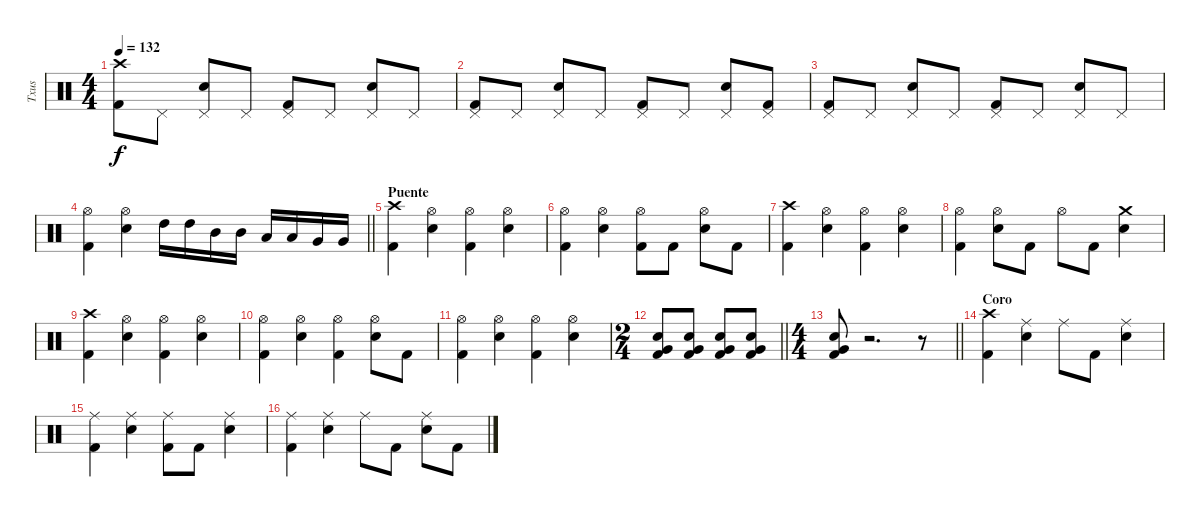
\track ("Txus" "Txus") {instrument percussion}
\staff {score}
\articulation defaults
\ts (4 4)
\tempo 132
\clef neutral
\ks c
("Crash high (hit)" "Kick (hit) 2").8{dy f} "Pedal Hi-Hat (hit)".8 ("Pedal Hi-Hat (hit)" "Electric Snare (hit)").8 "Pedal Hi-Hat (hit)".8 ("Pedal Hi-Hat (hit)" "Kick (hit) 2").8 "Pedal Hi-Hat (hit)".8 ("Pedal Hi-Hat (hit)" "Electric Snare (hit)").8 "Pedal Hi-Hat (hit)".8 |
("Pedal Hi-Hat (hit)" "Kick (hit) 2").8 "Pedal Hi-Hat (hit)".8 ("Pedal Hi-Hat (hit)" "Electric Snare (hit)").8 "Pedal Hi-Hat (hit)".8 ("Pedal Hi-Hat (hit)" "Kick (hit) 2").8 "Pedal Hi-Hat (hit)".8 ("Pedal Hi-Hat (hit)" "Electric Snare (hit)").8 ("Pedal Hi-Hat (hit)" "Kick (hit) 2").8 |
("Pedal Hi-Hat (hit)" "Kick (hit) 2").8 "Pedal Hi-Hat (hit)".8 ("Pedal Hi-Hat (hit)" "Electric Snare (hit)").8 "Pedal Hi-Hat (hit)".8 ("Pedal Hi-Hat (hit)" "Kick (hit) 2").8 "Pedal Hi-Hat (hit)".8 ("Pedal Hi-Hat (hit)" "Electric Snare (hit)").8 "Pedal Hi-Hat (hit)".8 |
\barLineRight lightlight
("Hi-Hat (open)" "Kick (hit) 2").4 ("Hi-Hat (open)" "Electric Snare (hit)").4 "High Tom (hit)".16 "High Tom (hit)".16 "Mid Tom (hit)".16 "Mid Tom (hit)".16 "Low Tom (hit)".16 "Low Tom (hit)".16 "Very Low Tom (hit)".16 "Very Low Tom (hit)".16 |
\section ("" "Puente")
("Crash high (hit)" "Kick (hit) 2").4 ("Hi-Hat (open)" "Electric Snare (hit)").4 ("Hi-Hat (open)" "Kick (hit) 2").4 ("Hi-Hat (open)" "Electric Snare (hit)").4 |
("Hi-Hat (open)" "Kick (hit) 2").4 ("Hi-Hat (open)" "Electric Snare (hit)").4 ("Hi-Hat (open)" "Kick (hit) 2").8 "Kick (hit) 2".8 ("Hi-Hat (open)" "Electric Snare (hit)").8 "Kick (hit) 2".8 |
("Crash high (hit)" "Kick (hit) 2").4 ("Hi-Hat (open)" "Electric Snare (hit)").4 ("Hi-Hat (open)" "Kick (hit) 2").4 ("Hi-Hat (open)" "Electric Snare (hit)").4 |
("Hi-Hat (open)" "Kick (hit) 2").4 ("Hi-Hat (open)" "Electric Snare (hit)").8 "Kick (hit) 2".8 "Hi-Hat (open)".8 "Kick (hit) 2".8 ("Crash medium (hit)" "Electric Snare (hit)").4 |
("Crash high (hit)" "Kick (hit) 2").4 ("Hi-Hat (open)" "Electric Snare (hit)").4 ("Hi-Hat (open)" "Kick (hit) 2").4 ("Hi-Hat (open)" "Electric Snare (hit)").4 |
("Hi-Hat (open)" "Kick (hit) 2").4 ("Hi-Hat (open)" "Electric Snare (hit)").4 ("Hi-Hat (open)" "Kick (hit) 2").4 ("Hi-Hat (open)" "Electric Snare (hit)").8 "Kick (hit) 2".8 |
("Hi-Hat (open)" "Kick (hit) 2").4 ("Hi-Hat (open)" "Electric Snare (hit)").4 ("Hi-Hat (open)" "Kick (hit) 2").4 ("Hi-Hat (open)" "Electric Snare (hit)").4 |
\ts (2 4)
\barLineRight lightlight
("Electric Snare (hit)" "Very Low Tom (hit)" "Kick (hit) 2").8 ("Electric Snare (hit)" "Very Low Tom (hit)" "Kick (hit) 2").8 ("Electric Snare (hit)" "Very Low Tom (hit)" "Kick (hit) 2").8 ("Electric Snare (hit)" "Very Low Tom (hit)" "Kick (hit) 2").8 |
\ts (4 4)
\barLineRight lightlight
("Electric Snare (hit)" "Very Low Tom (hit)" "Kick (hit) 2").8 r.2{d} r.8 |
\section ("" "Coro")
("Crash high (hit)" "Kick (hit) 2").4 ("Ride (middle)" "Electric Snare (hit)").4 "Ride (middle)".8 "Kick (hit) 2".8 ("Ride (middle)" "Electric Snare (hit)").4 |
("Ride (middle)" "Kick (hit) 2").4 ("Ride (middle)" "Electric Snare (hit)").4 ("Ride (middle)" "Kick (hit) 2").8 "Kick (hit) 2".8 ("Ride (middle)" "Electric Snare (hit)").4 |
("Ride (middle)" "Kick (hit) 2").4 ("Ride (middle)" "Electric Snare (hit)").4 "Ride (middle)".8 "Kick (hit) 2".8 ("Ride (middle)" "Electric Snare (hit)").8 "Kick (hit) 2".8
